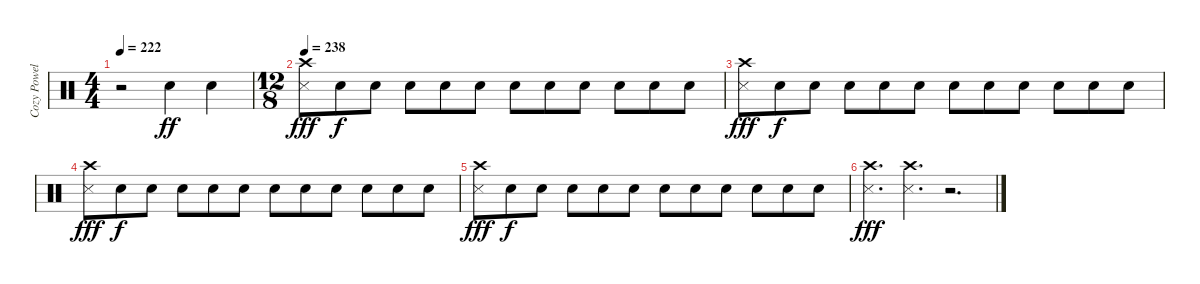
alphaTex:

\track ("Cozy Powell" "Cozy Powel") {instrument percussion}
\staff {score}
\articulation defaults
\ts (4 4)
\tempo 222
\clef neutral
\ks c
r.2{dy f} "Electric Snare (hit)".4{dy ff} "Electric Snare (hit)".4 |
\ts (12 8)
\tempo 238
("Metronome (hit)" "Crash high (hit)").8{dy fff} "Electric Snare (hit)".8{dy f} "Electric Snare (hit)".8 "Electric Snare (hit)".8 "Electric Snare (hit)".8 "Electric Snare (hit)".8 "Electric Snare (hit)".8 "Electric Snare (hit)".8 "Electric Snare (hit)".8 "Electric Snare (hit)".8 "Electric Snare (hit)".8 "Electric Snare (hit)".8 |
("Metronome (hit)" "Crash high (hit)").8{dy fff} "Electric Snare (hit)".8{dy f} "Electric Snare (hit)".8 "Electric Snare (hit)".8 "Electric Snare (hit)".8 "Electric Snare (hit)".8 "Electric Snare (hit)".8 "Electric Snare (hit)".8 "Electric Snare (hit)".8 "Electric Snare (hit)".8 "Electric Snare (hit)".8 "Electric Snare (hit)".8 |
("Metronome (hit)" "Crash high (hit)").8{dy fff} "Electric Snare (hit)".8{dy f} "Electric Snare (hit)".8 "Electric Snare (hit)".8 "Electric Snare (hit)".8 "Electric Snare (hit)".8 "Electric Snare (hit)".8 "Electric Snare (hit)".8 "Electric Snare (hit)".8 "Electric Snare (hit)".8 "Electric Snare (hit)".8 "Electric Snare (hit)".8 |
("Metronome (hit)" "Crash high (hit)").8{dy fff} "Electric Snare (hit)".8{dy f} "Electric Snare (hit)".8 "Electric Snare (hit)".8 "Electric Snare (hit)".8 "Electric Snare (hit)".8 "Electric Snare (hit)".8 "Electric Snare (hit)".8 "Electric Snare (hit)".8 "Electric Snare (hit)".8 "Electric Snare (hit)".8 "Electric Snare (hit)".8 |
("Metronome (hit)" "Crash high (hit)").4{d dy fff} ("Metronome (hit)" "Crash high (hit)").4{d} r.2{d}
